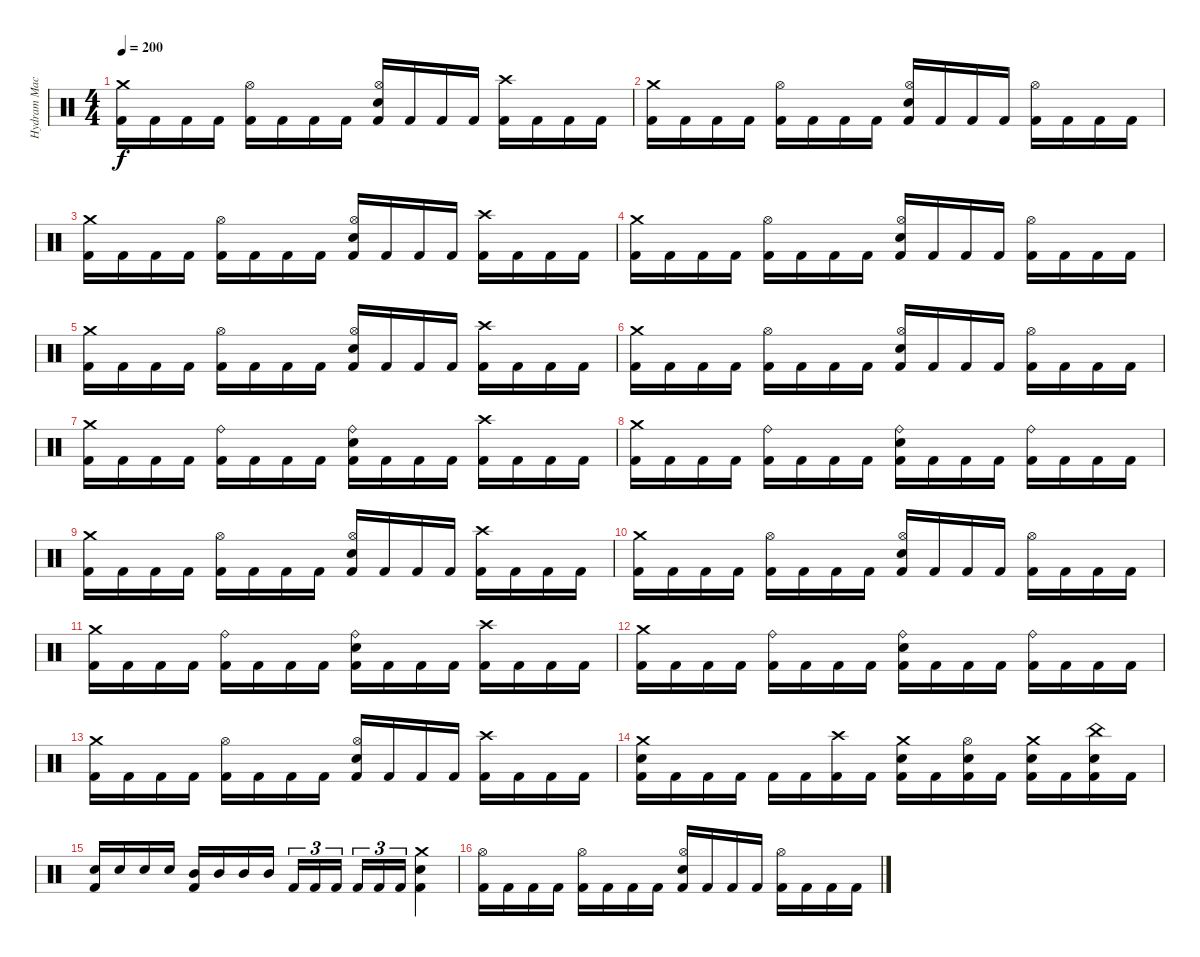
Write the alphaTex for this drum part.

\track ("Hydram Machine" "Hydram Mac") {instrument percussion}
\staff {score}
\articulation defaults
\ts (4 4)
\tempo 200
\clef neutral
\ks c
("Crash medium (hit)" "Kick (hit) 2").16{dy f} "Kick (hit) 2".16 "Kick (hit) 2".16 "Kick (hit) 2".16 ("Hi-Hat (open)" "Kick (hit) 2").16 "Kick (hit) 2".16 "Kick (hit) 2".16 "Kick (hit) 2".16 ("Hi-Hat (open)" "Electric Snare (hit)" "Kick (hit) 2").16 "Kick (hit) 2".16 "Kick (hit) 2".16 "Kick (hit) 2".16 ("Crash high (hit)" "Kick (hit) 2").16 "Kick (hit) 2".16 "Kick (hit) 2".16 "Kick (hit) 2".16 |
("Crash medium (hit)" "Kick (hit) 2").16 "Kick (hit) 2".16 "Kick (hit) 2".16 "Kick (hit) 2".16 ("Hi-Hat (open)" "Kick (hit) 2").16 "Kick (hit) 2".16 "Kick (hit) 2".16 "Kick (hit) 2".16 ("Hi-Hat (open)" "Electric Snare (hit)" "Kick (hit) 2").16 "Kick (hit) 2".16 "Kick (hit) 2".16 "Kick (hit) 2".16 ("Hi-Hat (open)" "Kick (hit) 2").16 "Kick (hit) 2".16 "Kick (hit) 2".16 "Kick (hit) 2".16 |
("Crash medium (hit)" "Kick (hit) 2").16 "Kick (hit) 2".16 "Kick (hit) 2".16 "Kick (hit) 2".16 ("Hi-Hat (open)" "Kick (hit) 2").16 "Kick (hit) 2".16 "Kick (hit) 2".16 "Kick (hit) 2".16 ("Hi-Hat (open)" "Electric Snare (hit)" "Kick (hit) 2").16 "Kick (hit) 2".16 "Kick (hit) 2".16 "Kick (hit) 2".16 ("Crash high (hit)" "Kick (hit) 2").16 "Kick (hit) 2".16 "Kick (hit) 2".16 "Kick (hit) 2".16 |
("Crash medium (hit)" "Kick (hit) 2").16 "Kick (hit) 2".16 "Kick (hit) 2".16 "Kick (hit) 2".16 ("Hi-Hat (open)" "Kick (hit) 2").16 "Kick (hit) 2".16 "Kick (hit) 2".16 "Kick (hit) 2".16 ("Hi-Hat (open)" "Electric Snare (hit)" "Kick (hit) 2").16 "Kick (hit) 2".16 "Kick (hit) 2".16 "Kick (hit) 2".16 ("Hi-Hat (open)" "Kick (hit) 2").16 "Kick (hit) 2".16 "Kick (hit) 2".16 "Kick (hit) 2".16 |
("Crash medium (hit)" "Kick (hit) 2").16 "Kick (hit) 2".16 "Kick (hit) 2".16 "Kick (hit) 2".16 ("Hi-Hat (open)" "Kick (hit) 2").16 "Kick (hit) 2".16 "Kick (hit) 2".16 "Kick (hit) 2".16 ("Hi-Hat (open)" "Electric Snare (hit)" "Kick (hit) 2").16 "Kick (hit) 2".16 "Kick (hit) 2".16 "Kick (hit) 2".16 ("Crash high (hit)" "Kick (hit) 2").16 "Kick (hit) 2".16 "Kick (hit) 2".16 "Kick (hit) 2".16 |
("Crash medium (hit)" "Kick (hit) 2").16 "Kick (hit) 2".16 "Kick (hit) 2".16 "Kick (hit) 2".16 ("Hi-Hat (open)" "Kick (hit) 2").16 "Kick (hit) 2".16 "Kick (hit) 2".16 "Kick (hit) 2".16 ("Hi-Hat (open)" "Electric Snare (hit)" "Kick (hit) 2").16 "Kick (hit) 2".16 "Kick (hit) 2".16 "Kick (hit) 2".16 ("Hi-Hat (open)" "Kick (hit) 2").16 "Kick (hit) 2".16 "Kick (hit) 2".16 "Kick (hit) 2".16 |
("Crash medium (hit)" "Kick (hit) 2").16 "Kick (hit) 2".16 "Kick (hit) 2".16 "Kick (hit) 2".16 ("Ride (bell)" "Kick (hit) 2").16 "Kick (hit) 2".16 "Kick (hit) 2".16 "Kick (hit) 2".16 ("Ride (bell)" "Electric Snare (hit)" "Kick (hit) 2").16 "Kick (hit) 2".16 "Kick (hit) 2".16 "Kick (hit) 2".16 ("Crash high (hit)" "Kick (hit) 2").16 "Kick (hit) 2".16 "Kick (hit) 2".16 "Kick (hit) 2".16 |
("Crash medium (hit)" "Kick (hit) 2").16 "Kick (hit) 2".16 "Kick (hit) 2".16 "Kick (hit) 2".16 ("Ride (bell)" "Kick (hit) 2").16 "Kick (hit) 2".16 "Kick (hit) 2".16 "Kick (hit) 2".16 ("Ride (bell)" "Electric Snare (hit)" "Kick (hit) 2").16 "Kick (hit) 2".16 "Kick (hit) 2".16 "Kick (hit) 2".16 ("Ride (bell)" "Kick (hit) 2").16 "Kick (hit) 2".16 "Kick (hit) 2".16 "Kick (hit) 2".16 |
("Crash medium (hit)" "Kick (hit) 2").16 "Kick (hit) 2".16 "Kick (hit) 2".16 "Kick (hit) 2".16 ("Hi-Hat (open)" "Kick (hit) 2").16 "Kick (hit) 2".16 "Kick (hit) 2".16 "Kick (hit) 2".16 ("Hi-Hat (open)" "Electric Snare (hit)" "Kick (hit) 2").16 "Kick (hit) 2".16 "Kick (hit) 2".16 "Kick (hit) 2".16 ("Crash high (hit)" "Kick (hit) 2").16 "Kick (hit) 2".16 "Kick (hit) 2".16 "Kick (hit) 2".16 |
("Crash medium (hit)" "Kick (hit) 2").16 "Kick (hit) 2".16 "Kick (hit) 2".16 "Kick (hit) 2".16 ("Hi-Hat (open)" "Kick (hit) 2").16 "Kick (hit) 2".16 "Kick (hit) 2".16 "Kick (hit) 2".16 ("Hi-Hat (open)" "Electric Snare (hit)" "Kick (hit) 2").16 "Kick (hit) 2".16 "Kick (hit) 2".16 "Kick (hit) 2".16 ("Hi-Hat (open)" "Kick (hit) 2").16 "Kick (hit) 2".16 "Kick (hit) 2".16 "Kick (hit) 2".16 |
("Crash medium (hit)" "Kick (hit) 2").16 "Kick (hit) 2".16 "Kick (hit) 2".16 "Kick (hit) 2".16 ("Ride (bell)" "Kick (hit) 2").16 "Kick (hit) 2".16 "Kick (hit) 2".16 "Kick (hit) 2".16 ("Ride (bell)" "Electric Snare (hit)" "Kick (hit) 2").16 "Kick (hit) 2".16 "Kick (hit) 2".16 "Kick (hit) 2".16 ("Crash high (hit)" "Kick (hit) 2").16 "Kick (hit) 2".16 "Kick (hit) 2".16 "Kick (hit) 2".16 |
("Crash medium (hit)" "Kick (hit) 2").16 "Kick (hit) 2".16 "Kick (hit) 2".16 "Kick (hit) 2".16 ("Ride (bell)" "Kick (hit) 2").16 "Kick (hit) 2".16 "Kick (hit) 2".16 "Kick (hit) 2".16 ("Ride (bell)" "Electric Snare (hit)" "Kick (hit) 2").16 "Kick (hit) 2".16 "Kick (hit) 2".16 "Kick (hit) 2".16 ("Ride (bell)" "Kick (hit) 2").16 "Kick (hit) 2".16 "Kick (hit) 2".16 "Kick (hit) 2".16 |
("Crash medium (hit)" "Kick (hit) 2").16 "Kick (hit) 2".16 "Kick (hit) 2".16 "Kick (hit) 2".16 ("Hi-Hat (open)" "Kick (hit) 2").16 "Kick (hit) 2".16 "Kick (hit) 2".16 "Kick (hit) 2".16 ("Hi-Hat (open)" "Electric Snare (hit)" "Kick (hit) 2").16 "Kick (hit) 2".16 "Kick (hit) 2".16 "Kick (hit) 2".16 ("Crash high (hit)" "Kick (hit) 2").16 "Kick (hit) 2".16 "Kick (hit) 2".16 "Kick (hit) 2".16 |
("Crash medium (hit)" "Electric Snare (hit)" "Kick (hit) 2").16 "Kick (hit) 2".16 "Kick (hit) 2".16 "Kick (hit) 2".16 "Kick (hit) 2".16 "Kick (hit) 2".16 ("Crash high (hit)" "Kick (hit) 2").16 "Kick (hit) 2".16 ("Crash medium (hit)" "Electric Snare (hit)" "Kick (hit) 2").16 "Kick (hit) 2".16 ("Hi-Hat (open)" "Electric Snare (hit)" "Kick (hit) 2").16 "Kick (hit) 2".16 ("Crash medium (hit)" "Electric Snare (hit)" "Kick (hit) 2").16 "Kick (hit) 2".16 ("China (hit)" "Electric Snare (hit)" "Kick (hit) 2").16 "Kick (hit) 2".16 |
("Electric Snare (hit)" "Kick (hit) 2").16 "Electric Snare (hit)".16 "Electric Snare (hit)".16 "Electric Snare (hit)".16 ("Mid Tom (hit)" "Kick (hit) 2").16 "Mid Tom (hit)".16 "Mid Tom (hit)".16 "Mid Tom (hit)".16 "Kick (hit) 2".16{tu (3 2)} "Kick (hit) 2".16{tu (3 2)} "Kick (hit) 2".16{tu (3 2) beam splitsecondary} "Kick (hit) 2".16{tu (3 2)} "Kick (hit) 2".16{tu (3 2)} "Kick (hit) 2".16{tu (3 2)} ("Crash medium (hit)" "Electric Snare (hit)" "Kick (hit) 2").4 |
("Hi-Hat (open)" "Kick (hit) 2").16 "Kick (hit) 2".16 "Kick (hit) 2".16 "Kick (hit) 2".16 ("Hi-Hat (open)" "Kick (hit) 2").16 "Kick (hit) 2".16 "Kick (hit) 2".16 "Kick (hit) 2".16 ("Hi-Hat (open)" "Electric Snare (hit)" "Kick (hit) 2").16 "Kick (hit) 2".16 "Kick (hit) 2".16 "Kick (hit) 2".16 ("Hi-Hat (open)" "Kick (hit) 2").16 "Kick (hit) 2".16 "Kick (hit) 2".16 "Kick (hit) 2".16
